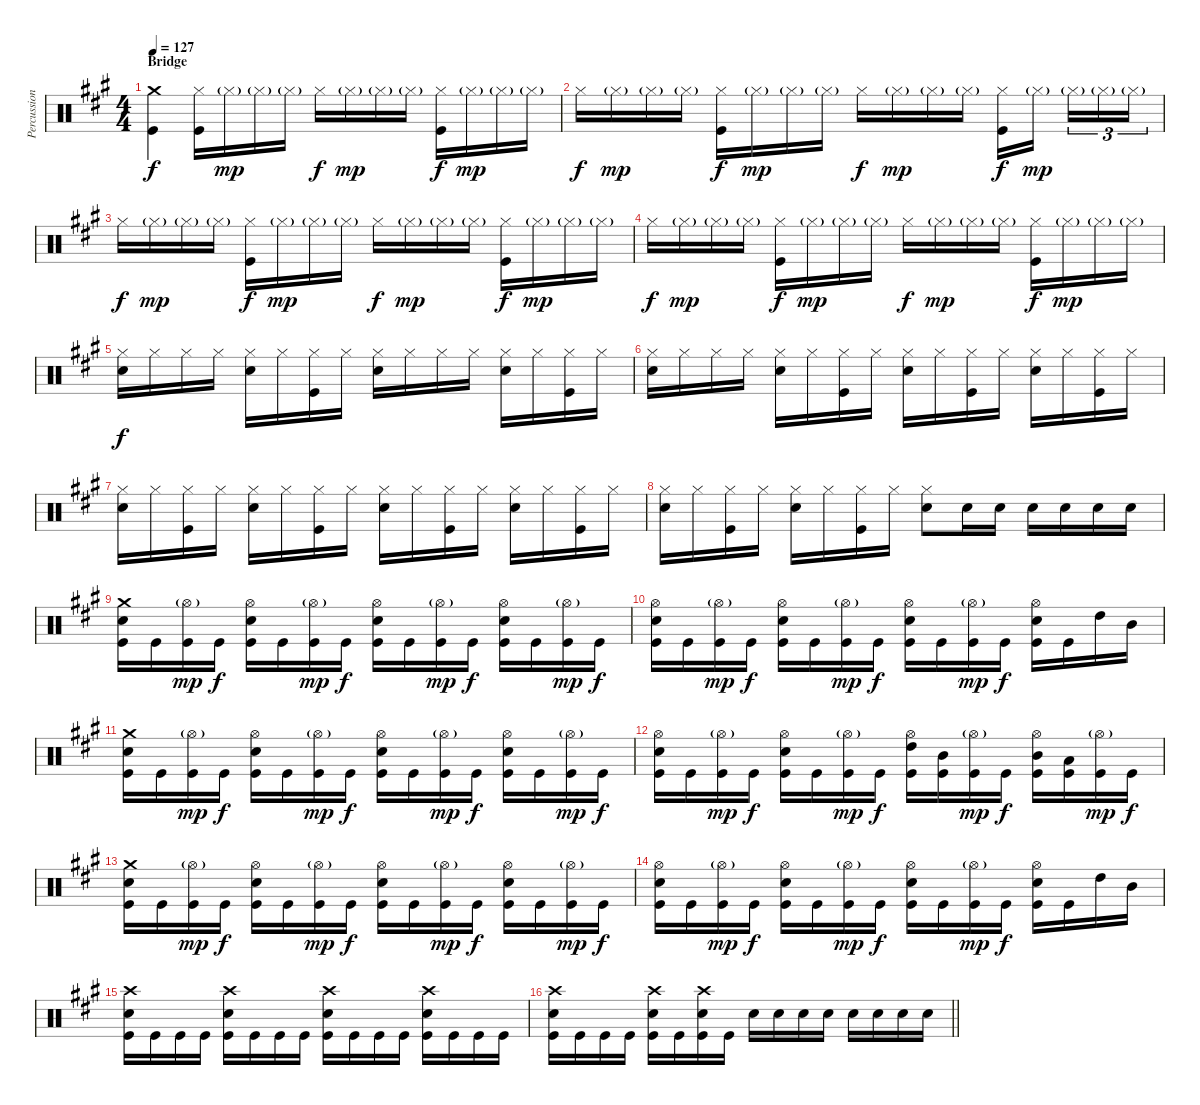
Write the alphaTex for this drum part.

\track ("Percussion" "Percussion") {instrument percussion}
\staff {score}
\articulation defaults
\ts (4 4)
\section ("" "Bridge")
\tempo 127
\clef neutral
\ks a
("Crash medium (hit)" "Kick (hit)").4{dy f} ("Hi-Hat (closed)" "Kick (hit)").16 "Hi-Hat (closed)"{g}.16{dy mp} "Hi-Hat (closed)"{g}.16 "Hi-Hat (closed)"{g}.16 "Hi-Hat (closed)".16{dy f} "Hi-Hat (closed)"{g}.16{dy mp} "Hi-Hat (closed)"{g}.16 "Hi-Hat (closed)"{g}.16 ("Hi-Hat (closed)" "Kick (hit)").16{dy f} "Hi-Hat (closed)"{g}.16{dy mp} "Hi-Hat (closed)"{g}.16 "Hi-Hat (closed)"{g}.16 |
"Hi-Hat (closed)".16{dy f} "Hi-Hat (closed)"{g}.16{dy mp} "Hi-Hat (closed)"{g}.16 "Hi-Hat (closed)"{g}.16 ("Hi-Hat (closed)" "Kick (hit)").16{dy f} "Hi-Hat (closed)"{g}.16{dy mp} "Hi-Hat (closed)"{g}.16 "Hi-Hat (closed)"{g}.16 "Hi-Hat (closed)".16{dy f} "Hi-Hat (closed)"{g}.16{dy mp} "Hi-Hat (closed)"{g}.16 "Hi-Hat (closed)"{g}.16 ("Hi-Hat (closed)" "Kick (hit)").16{dy f} "Hi-Hat (closed)"{g}.16{dy mp beam splitsecondary} "Hi-Hat (closed)"{g}.16{tu (3 2)} "Hi-Hat (closed)"{g}.16{tu (3 2)} "Hi-Hat (closed)"{g}.16{tu (3 2)} |
"Hi-Hat (closed)".16{dy f} "Hi-Hat (closed)"{g}.16{dy mp} "Hi-Hat (closed)"{g}.16 "Hi-Hat (closed)"{g}.16 ("Hi-Hat (closed)" "Kick (hit)").16{dy f} "Hi-Hat (closed)"{g}.16{dy mp} "Hi-Hat (closed)"{g}.16 "Hi-Hat (closed)"{g}.16 "Hi-Hat (closed)".16{dy f} "Hi-Hat (closed)"{g}.16{dy mp} "Hi-Hat (closed)"{g}.16 "Hi-Hat (closed)"{g}.16 ("Hi-Hat (closed)" "Kick (hit)").16{dy f} "Hi-Hat (closed)"{g}.16{dy mp} "Hi-Hat (closed)"{g}.16 "Hi-Hat (closed)"{g}.16 |
"Hi-Hat (closed)".16{dy f} "Hi-Hat (closed)"{g}.16{dy mp} "Hi-Hat (closed)"{g}.16 "Hi-Hat (closed)"{g}.16 ("Hi-Hat (closed)" "Kick (hit)").16{dy f} "Hi-Hat (closed)"{g}.16{dy mp} "Hi-Hat (closed)"{g}.16 "Hi-Hat (closed)"{g}.16 "Hi-Hat (closed)".16{dy f} "Hi-Hat (closed)"{g}.16{dy mp} "Hi-Hat (closed)"{g}.16 "Hi-Hat (closed)"{g}.16 ("Hi-Hat (closed)" "Kick (hit)").16{dy f} "Hi-Hat (closed)"{g}.16{dy mp} "Hi-Hat (closed)"{g}.16 "Hi-Hat (closed)"{g}.16 |
("Hi-Hat (closed)" "Electric Snare (hit)").16{dy f} "Hi-Hat (closed)".16 "Hi-Hat (closed)".16 "Hi-Hat (closed)".16 ("Hi-Hat (closed)" "Electric Snare (hit)").16 "Hi-Hat (closed)".16 ("Hi-Hat (closed)" "Kick (hit)").16 "Hi-Hat (closed)".16 ("Hi-Hat (closed)" "Electric Snare (hit)").16 "Hi-Hat (closed)".16 "Hi-Hat (closed)".16 "Hi-Hat (closed)".16 ("Hi-Hat (closed)" "Electric Snare (hit)").16 "Hi-Hat (closed)".16 ("Hi-Hat (closed)" "Kick (hit)").16 "Hi-Hat (closed)".16 |
("Hi-Hat (closed)" "Electric Snare (hit)").16 "Hi-Hat (closed)".16 "Hi-Hat (closed)".16 "Hi-Hat (closed)".16 ("Hi-Hat (closed)" "Electric Snare (hit)").16 "Hi-Hat (closed)".16 ("Hi-Hat (closed)" "Kick (hit)").16 "Hi-Hat (closed)".16 ("Hi-Hat (closed)" "Electric Snare (hit)").16 "Hi-Hat (closed)".16 ("Hi-Hat (closed)" "Kick (hit)").16 "Hi-Hat (closed)".16 ("Hi-Hat (closed)" "Electric Snare (hit)").16 "Hi-Hat (closed)".16 ("Hi-Hat (closed)" "Kick (hit)").16 "Hi-Hat (closed)".16 |
("Hi-Hat (closed)" "Electric Snare (hit)").16 "Hi-Hat (closed)".16 ("Hi-Hat (closed)" "Kick (hit)").16 "Hi-Hat (closed)".16 ("Hi-Hat (closed)" "Electric Snare (hit)").16 "Hi-Hat (closed)".16 ("Hi-Hat (closed)" "Kick (hit)").16 "Hi-Hat (closed)".16 ("Hi-Hat (closed)" "Electric Snare (hit)").16 "Hi-Hat (closed)".16 ("Hi-Hat (closed)" "Kick (hit)").16 "Hi-Hat (closed)".16 ("Hi-Hat (closed)" "Electric Snare (hit)").16 "Hi-Hat (closed)".16 ("Hi-Hat (closed)" "Kick (hit)").16 "Hi-Hat (closed)".16 |
("Hi-Hat (closed)" "Electric Snare (hit)").16 "Hi-Hat (closed)".16 ("Hi-Hat (closed)" "Kick (hit)").16 "Hi-Hat (closed)".16 ("Hi-Hat (closed)" "Electric Snare (hit)").16 "Hi-Hat (closed)".16 ("Hi-Hat (closed)" "Kick (hit)").16 "Hi-Hat (closed)".16 ("Hi-Hat (closed)" "Electric Snare (hit)").8 "Electric Snare (hit)".16 "Electric Snare (hit)".16 "Electric Snare (hit)".16 "Electric Snare (hit)".16 "Electric Snare (hit)".16 "Electric Snare (hit)".16 |
("Crash medium (hit)" "Electric Snare (hit)" "Kick (hit)").16 "Kick (hit)".16 ("Hi-Hat (open)"{g} "Kick (hit)").16{dy mp} "Kick (hit)".16{dy f} ("Hi-Hat (open)" "Electric Snare (hit)" "Kick (hit)").16 "Kick (hit)".16 ("Hi-Hat (open)"{g} "Kick (hit)").16{dy mp} "Kick (hit)".16{dy f} ("Hi-Hat (open)" "Electric Snare (hit)" "Kick (hit)").16 "Kick (hit)".16 ("Hi-Hat (open)"{g} "Kick (hit)").16{dy mp} "Kick (hit)".16{dy f} ("Hi-Hat (open)" "Electric Snare (hit)" "Kick (hit)").16 "Kick (hit)".16 ("Hi-Hat (open)"{g} "Kick (hit)").16{dy mp} "Kick (hit)".16{dy f} |
("Hi-Hat (open)" "Electric Snare (hit)" "Kick (hit)").16 "Kick (hit)".16 ("Hi-Hat (open)"{g} "Kick (hit)").16{dy mp} "Kick (hit)".16{dy f} ("Hi-Hat (open)" "Electric Snare (hit)" "Kick (hit)").16 "Kick (hit)".16 ("Hi-Hat (open)"{g} "Kick (hit)").16{dy mp} "Kick (hit)".16{dy f} ("Hi-Hat (open)" "Electric Snare (hit)" "Kick (hit)").16 "Kick (hit)".16 ("Hi-Hat (open)"{g} "Kick (hit)").16{dy mp} "Kick (hit)".16{dy f} ("Hi-Hat (open)" "Electric Snare (hit)" "Kick (hit)").16 "Kick (hit)".16 "High Tom (hit)".16 "Mid Tom (hit)".16 |
("Crash medium (hit)" "Electric Snare (hit)" "Kick (hit)").16 "Kick (hit)".16 ("Hi-Hat (open)"{g} "Kick (hit)").16{dy mp} "Kick (hit)".16{dy f} ("Hi-Hat (open)" "Electric Snare (hit)" "Kick (hit)").16 "Kick (hit)".16 ("Hi-Hat (open)"{g} "Kick (hit)").16{dy mp} "Kick (hit)".16{dy f} ("Hi-Hat (open)" "Electric Snare (hit)" "Kick (hit)").16 "Kick (hit)".16 ("Hi-Hat (open)"{g} "Kick (hit)").16{dy mp} "Kick (hit)".16{dy f} ("Hi-Hat (open)" "Electric Snare (hit)" "Kick (hit)").16 "Kick (hit)".16 ("Hi-Hat (open)"{g} "Kick (hit)").16{dy mp} "Kick (hit)".16{dy f} |
("Hi-Hat (open)" "Electric Snare (hit)" "Kick (hit)").16 "Kick (hit)".16 ("Hi-Hat (open)"{g} "Kick (hit)").16{dy mp} "Kick (hit)".16{dy f} ("Hi-Hat (open)" "Electric Snare (hit)" "Kick (hit)").16 "Kick (hit)".16 ("Hi-Hat (open)"{g} "Kick (hit)").16{dy mp} "Kick (hit)".16{dy f} ("Hi-Hat (open)" "High Tom (hit)" "Kick (hit)").16 ("Mid Tom (hit)" "Kick (hit)").16 ("Hi-Hat (open)"{g} "Kick (hit)").16{dy mp} "Kick (hit)".16{dy f} ("Hi-Hat (open)" "Mid Tom (hit)" "Kick (hit)").16 ("Low Tom (hit)" "Kick (hit)").16 ("Hi-Hat (open)"{g} "Kick (hit)").16{dy mp} "Kick (hit)".16{dy f} |
("Crash medium (hit)" "Electric Snare (hit)" "Kick (hit)").16 "Kick (hit)".16 ("Hi-Hat (open)"{g} "Kick (hit)").16{dy mp} "Kick (hit)".16{dy f} ("Hi-Hat (open)" "Electric Snare (hit)" "Kick (hit)").16 "Kick (hit)".16 ("Hi-Hat (open)"{g} "Kick (hit)").16{dy mp} "Kick (hit)".16{dy f} ("Hi-Hat (open)" "Electric Snare (hit)" "Kick (hit)").16 "Kick (hit)".16 ("Hi-Hat (open)"{g} "Kick (hit)").16{dy mp} "Kick (hit)".16{dy f} ("Hi-Hat (open)" "Electric Snare (hit)" "Kick (hit)").16 "Kick (hit)".16 ("Hi-Hat (open)"{g} "Kick (hit)").16{dy mp} "Kick (hit)".16{dy f} |
("Hi-Hat (open)" "Electric Snare (hit)" "Kick (hit)").16 "Kick (hit)".16 ("Hi-Hat (open)"{g} "Kick (hit)").16{dy mp} "Kick (hit)".16{dy f} ("Hi-Hat (open)" "Electric Snare (hit)" "Kick (hit)").16 "Kick (hit)".16 ("Hi-Hat (open)"{g} "Kick (hit)").16{dy mp} "Kick (hit)".16{dy f} ("Hi-Hat (open)" "Electric Snare (hit)" "Kick (hit)").16 "Kick (hit)".16 ("Hi-Hat (open)"{g} "Kick (hit)").16{dy mp} "Kick (hit)".16{dy f} ("Hi-Hat (open)" "Electric Snare (hit)" "Kick (hit)").16 "Kick (hit)".16 "High Tom (hit)".16 "Mid Tom (hit)".16 |
("Crash high (hit)" "Electric Snare (hit)" "Kick (hit)").16 "Kick (hit)".16 "Kick (hit)".16 "Kick (hit)".16 ("Crash high (hit)" "Electric Snare (hit)" "Kick (hit)").16 "Kick (hit)".16 "Kick (hit)".16 "Kick (hit)".16 ("Crash high (hit)" "Electric Snare (hit)" "Kick (hit)").16 "Kick (hit)".16 "Kick (hit)".16 "Kick (hit)".16 ("Crash high (hit)" "Electric Snare (hit)" "Kick (hit)").16 "Kick (hit)".16 "Kick (hit)".16 "Kick (hit)".16 |
\barLineRight lightlight
("Crash high (hit)" "Electric Snare (hit)" "Kick (hit)").16 "Kick (hit)".16 "Kick (hit)".16 "Kick (hit)".16 ("Crash high (hit)" "Electric Snare (hit)" "Kick (hit)").16 "Kick (hit)".16 ("Crash high (hit)" "Electric Snare (hit)" "Kick (hit)").16 "Kick (hit)".16 "Electric Snare (hit)".16 "Electric Snare (hit)".16 "Electric Snare (hit)".16 "Electric Snare (hit)".16 "Electric Snare (hit)".16 "Electric Snare (hit)".16 "Electric Snare (hit)".16 "Electric Snare (hit)".16
